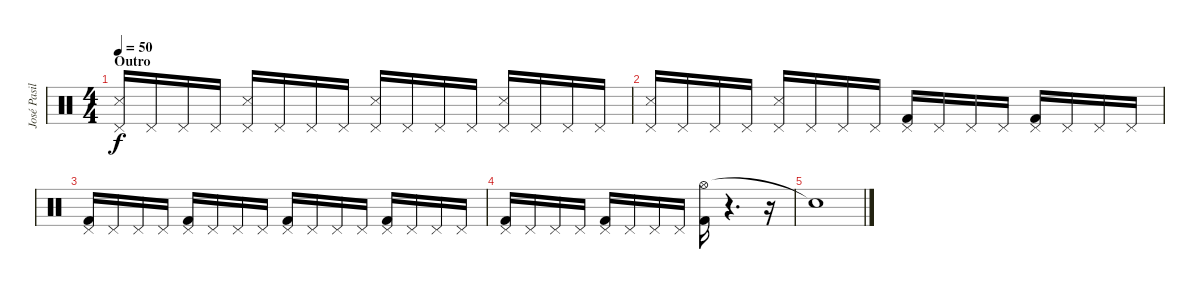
\track ("José Pasillas" "José Pasil") {instrument percussion}
\staff {score}
\articulation defaults
\ts (4 4)
\section ("" "Outro")
\tempo 50
\clef neutral
\ks c
("Pedal Hi-Hat (hit)" "Snare (side stick) 3").16{dy f} "Pedal Hi-Hat (hit)".16 "Pedal Hi-Hat (hit)".16 "Pedal Hi-Hat (hit)".16 ("Pedal Hi-Hat (hit)" "Snare (side stick) 3").16 "Pedal Hi-Hat (hit)".16 "Pedal Hi-Hat (hit)".16 "Pedal Hi-Hat (hit)".16 ("Pedal Hi-Hat (hit)" "Snare (side stick) 3").16 "Pedal Hi-Hat (hit)".16 "Pedal Hi-Hat (hit)".16 "Pedal Hi-Hat (hit)".16 ("Pedal Hi-Hat (hit)" "Snare (side stick) 3").16 "Pedal Hi-Hat (hit)".16 "Pedal Hi-Hat (hit)".16 "Pedal Hi-Hat (hit)".16 |
("Pedal Hi-Hat (hit)" "Snare (side stick) 3").16 "Pedal Hi-Hat (hit)".16 "Pedal Hi-Hat (hit)".16 "Pedal Hi-Hat (hit)".16 ("Pedal Hi-Hat (hit)" "Snare (side stick) 3").16 "Pedal Hi-Hat (hit)".16 "Pedal Hi-Hat (hit)".16 "Pedal Hi-Hat (hit)".16 ("Pedal Hi-Hat (hit)" "Kick (hit) 2").16 "Pedal Hi-Hat (hit)".16 "Pedal Hi-Hat (hit)".16 "Pedal Hi-Hat (hit)".16 ("Pedal Hi-Hat (hit)" "Kick (hit) 2").16 "Pedal Hi-Hat (hit)".16 "Pedal Hi-Hat (hit)".16 "Pedal Hi-Hat (hit)".16 |
("Pedal Hi-Hat (hit)" "Kick (hit) 2").16 "Pedal Hi-Hat (hit)".16 "Pedal Hi-Hat (hit)".16 "Pedal Hi-Hat (hit)".16 ("Pedal Hi-Hat (hit)" "Kick (hit) 2").16 "Pedal Hi-Hat (hit)".16 "Pedal Hi-Hat (hit)".16 "Pedal Hi-Hat (hit)".16 ("Pedal Hi-Hat (hit)" "Kick (hit) 2").16 "Pedal Hi-Hat (hit)".16 "Pedal Hi-Hat (hit)".16 "Pedal Hi-Hat (hit)".16 ("Pedal Hi-Hat (hit)" "Kick (hit) 2").16 "Pedal Hi-Hat (hit)".16 "Pedal Hi-Hat (hit)".16 "Pedal Hi-Hat (hit)".16 |
("Pedal Hi-Hat (hit)" "Kick (hit) 2").16 "Pedal Hi-Hat (hit)".16 "Pedal Hi-Hat (hit)".16 "Pedal Hi-Hat (hit)".16 ("Pedal Hi-Hat (hit)" "Kick (hit) 2").16 "Pedal Hi-Hat (hit)".16 "Pedal Hi-Hat (hit)".16 "Pedal Hi-Hat (hit)".16 ("Hi-Hat (open)" "Kick (hit) 2").16 r.4{d} r.16 |
"Snare (hit)"{t}.1
